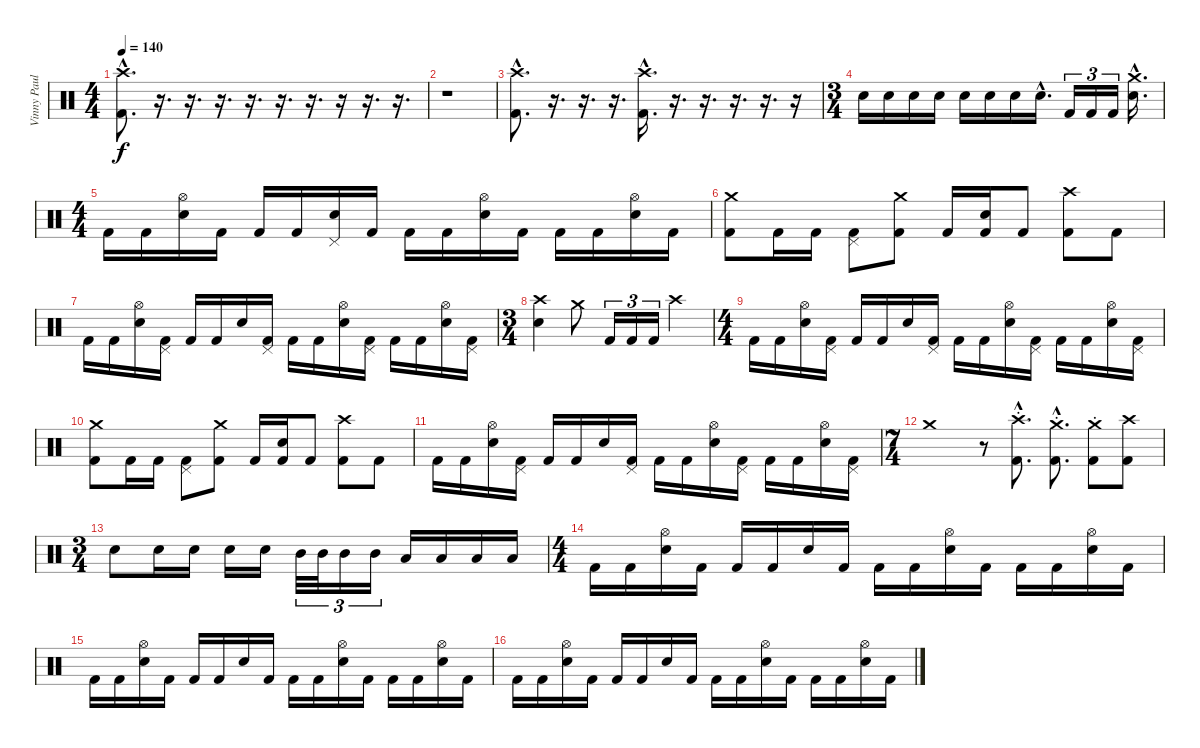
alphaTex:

\track ("Vinny Paul" "Vinny Paul") {instrument percussion}
\staff {score}
\articulation defaults
\ts (4 4)
\tempo 140
\clef neutral
\ks c
("Crash high (hit)"{hac} "Kick (hit) 2"{hac}).8{d dy f} r.16{d} r.16{d} r.16{d} r.16{d} r.16{d} r.16{d} r.16 r.16{d} r.16{d} |
r.1 |
("Crash high (hit)"{hac} "Kick (hit) 2"{hac}).8{d} r.16{d} r.16{d} r.16{d} ("Crash high (hit)"{hac} "Kick (hit) 2"{hac}).16{d} r.16{d} r.16{d} r.16{d} r.16{d} r.16 |
\ts (3 4)
"Snare (hit) 2".16 "Snare (hit) 2".16 "Snare (hit) 2".16 "Snare (hit) 2".16 "Snare (hit) 2".16 "Snare (hit) 2".16 "Snare (hit) 2".16 "Snare (hit) 2"{hac}.16{d} "Kick (hit) 2".16{tu (3 2)} "Kick (hit) 2".16{tu (3 2)} "Kick (hit) 2".16{tu (3 2)} ("Snare (hit) 2"{hac} "Crash medium (hit)"{hac}).16{d} |
\ts (4 4)
"Kick (hit) 2".16 "Kick (hit) 2".16 ("Hi-Hat (open)" "Snare (hit) 2").16 "Kick (hit) 2".16 "Kick (hit) 2".16 "Kick (hit) 2".16 ("Pedal Hi-Hat (hit)" "Snare (hit) 2").16 "Kick (hit) 2".16 "Kick (hit) 2".16 "Kick (hit) 2".16 ("Hi-Hat (open)" "Snare (hit) 2").16 "Kick (hit) 2".16 "Kick (hit) 2".16 "Kick (hit) 2".16 ("Hi-Hat (open)" "Snare (hit) 2").16 "Kick (hit) 2".16 |
("Crash medium (hit)" "Kick (hit) 2").8 "Kick (hit) 2".16 "Kick (hit) 2".16 ("Pedal Hi-Hat (hit)" "Kick (hit) 2").8 ("Crash medium (hit)" "Kick (hit) 2").8 "Kick (hit) 2".16 ("Snare (hit) 2" "Kick (hit) 2").16 "Kick (hit) 2".8 ("Crash high (hit)" "Kick (hit) 2").8 "Kick (hit) 2".8 |
"Kick (hit) 2".16 "Kick (hit) 2".16 ("Hi-Hat (open)" "Snare (hit) 2").16 ("Pedal Hi-Hat (hit)" "Kick (hit) 2").16 "Kick (hit) 2".16 "Kick (hit) 2".16 "Snare (hit) 2".16 ("Pedal Hi-Hat (hit)" "Kick (hit) 2").16 "Kick (hit) 2".16 "Kick (hit) 2".16 ("Hi-Hat (open)" "Snare (hit) 2").16 ("Pedal Hi-Hat (hit)" "Kick (hit) 2").16 "Kick (hit) 2".16 "Kick (hit) 2".16 ("Hi-Hat (open)" "Snare (hit) 2").16 ("Pedal Hi-Hat (hit)" "Kick (hit) 2").16 |
\ts (3 4)
("Crash high (hit)" "Snare (hit) 2").4 "Crash medium (hit)".8 "Kick (hit) 2".16{tu (3 2)} "Kick (hit) 2".16{tu (3 2)} "Kick (hit) 2".16{tu (3 2)} "Crash high (hit)".4 |
\ts (4 4)
"Kick (hit) 2".16 "Kick (hit) 2".16 ("Hi-Hat (open)" "Snare (hit) 2").16 ("Pedal Hi-Hat (hit)" "Kick (hit) 2").16 "Kick (hit) 2".16 "Kick (hit) 2".16 "Snare (hit) 2".16 ("Pedal Hi-Hat (hit)" "Kick (hit) 2").16 "Kick (hit) 2".16 "Kick (hit) 2".16 ("Hi-Hat (open)" "Snare (hit) 2").16 ("Pedal Hi-Hat (hit)" "Kick (hit) 2").16 "Kick (hit) 2".16 "Kick (hit) 2".16 ("Hi-Hat (open)" "Snare (hit) 2").16 ("Pedal Hi-Hat (hit)" "Kick (hit) 2").16 |
("Crash medium (hit)" "Kick (hit) 2").8 "Kick (hit) 2".16 "Kick (hit) 2".16 ("Pedal Hi-Hat (hit)" "Kick (hit) 2").8 ("Crash medium (hit)" "Kick (hit) 2").8 "Kick (hit) 2".16 ("Snare (hit) 2" "Kick (hit) 2").16 "Kick (hit) 2".8 ("Crash high (hit)" "Kick (hit) 2").8 "Kick (hit) 2".8 |
"Kick (hit) 2".16 "Kick (hit) 2".16 ("Hi-Hat (open)" "Snare (hit) 2").16 ("Pedal Hi-Hat (hit)" "Kick (hit) 2").16 "Kick (hit) 2".16 "Kick (hit) 2".16 "Snare (hit) 2".16 ("Pedal Hi-Hat (hit)" "Kick (hit) 2").16 "Kick (hit) 2".16 "Kick (hit) 2".16 ("Hi-Hat (open)" "Snare (hit) 2").16 ("Pedal Hi-Hat (hit)" "Kick (hit) 2").16 "Kick (hit) 2".16 "Kick (hit) 2".16 ("Hi-Hat (open)" "Snare (hit) 2").16 ("Pedal Hi-Hat (hit)" "Kick (hit) 2").16 |
\ts (7 4)
"Crash medium (hit)".1 r.8 ("Crash high (hit)"{hac st} "Kick (hit) 2"{hac}).8{d} ("Crash medium (hit)"{hac st} "Kick (hit) 2"{hac}).8{d} ("Crash medium (hit)"{st} "Kick (hit) 2").8 ("Crash high (hit)" "Kick (hit) 2").8 |
\ts (3 4)
"Snare (hit) 2".8 "Snare (hit) 2".16 "Snare (hit) 2".16 "Snare (hit) 2".16 "Snare (hit) 2".16 "Mid Tom (hit)".32{tu (3 2)} "Mid Tom (hit)".32{tu (3 2)} "Mid Tom (hit)".16{tu (3 2)} "Mid Tom (hit)".16{tu (3 2)} "Low Tom (hit)".16 "Low Tom (hit)".16 "Low Tom (hit)".16 "Low Tom (hit)".16 |
\ts (4 4)
"Kick (hit) 2".16 "Kick (hit) 2".16 ("Hi-Hat (open)" "Snare (hit) 2").16 "Kick (hit) 2".16 "Kick (hit) 2".16 "Kick (hit) 2".16 "Snare (hit) 2".16 "Kick (hit) 2".16 "Kick (hit) 2".16 "Kick (hit) 2".16 ("Hi-Hat (open)" "Snare (hit) 2").16 "Kick (hit) 2".16 "Kick (hit) 2".16 "Kick (hit) 2".16 ("Hi-Hat (open)" "Snare (hit) 2").16 "Kick (hit) 2".16 |
"Kick (hit) 2".16 "Kick (hit) 2".16 ("Hi-Hat (open)" "Snare (hit) 2").16 "Kick (hit) 2".16 "Kick (hit) 2".16 "Kick (hit) 2".16 "Snare (hit) 2".16 "Kick (hit) 2".16 "Kick (hit) 2".16 "Kick (hit) 2".16 ("Hi-Hat (open)" "Snare (hit) 2").16 "Kick (hit) 2".16 "Kick (hit) 2".16 "Kick (hit) 2".16 ("Hi-Hat (open)" "Snare (hit) 2").16 "Kick (hit) 2".16 |
"Kick (hit) 2".16 "Kick (hit) 2".16 ("Hi-Hat (open)" "Snare (hit) 2").16 "Kick (hit) 2".16 "Kick (hit) 2".16 "Kick (hit) 2".16 "Snare (hit) 2".16 "Kick (hit) 2".16 "Kick (hit) 2".16 "Kick (hit) 2".16 ("Hi-Hat (open)" "Snare (hit) 2").16 "Kick (hit) 2".16 "Kick (hit) 2".16 "Kick (hit) 2".16 ("Hi-Hat (open)" "Snare (hit) 2").16 "Kick (hit) 2".16
